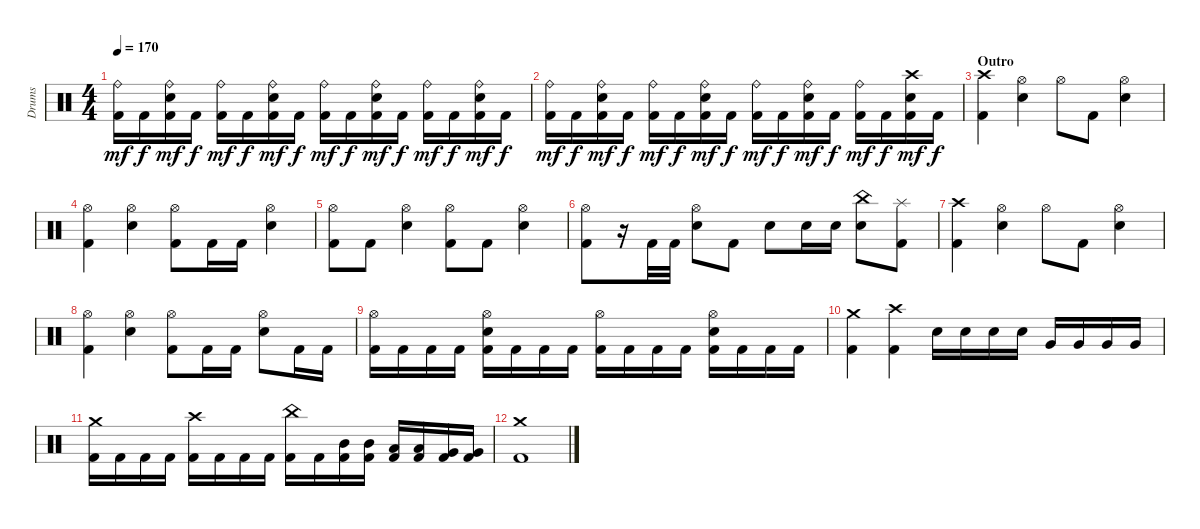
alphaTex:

\track ("Drums" "Drums") {instrument percussion}
\staff {score}
\articulation defaults
\ts (4 4)
\tempo 170
\clef neutral
\ks c
("Ride (bell)" "Kick (hit) 2").16{dy mf} "Kick (hit) 2".16{dy f} ("Ride (bell)" "Electric Snare (hit)" "Kick (hit) 2").16{dy mf} "Kick (hit) 2".16{dy f} ("Ride (bell)" "Kick (hit) 2").16{dy mf} "Kick (hit) 2".16{dy f} ("Ride (bell)" "Electric Snare (hit)" "Kick (hit) 2").16{dy mf} "Kick (hit) 2".16{dy f} ("Ride (bell)" "Kick (hit) 2").16{dy mf} "Kick (hit) 2".16{dy f} ("Ride (bell)" "Electric Snare (hit)" "Kick (hit) 2").16{dy mf} "Kick (hit) 2".16{dy f} ("Ride (bell)" "Kick (hit) 2").16{dy mf} "Kick (hit) 2".16{dy f} ("Ride (bell)" "Electric Snare (hit)" "Kick (hit) 2").16{dy mf} "Kick (hit) 2".16{dy f} |
("Ride (bell)" "Kick (hit) 2").16{dy mf} "Kick (hit) 2".16{dy f} ("Ride (bell)" "Electric Snare (hit)" "Kick (hit) 2").16{dy mf} "Kick (hit) 2".16{dy f} ("Ride (bell)" "Kick (hit) 2").16{dy mf} "Kick (hit) 2".16{dy f} ("Ride (bell)" "Electric Snare (hit)" "Kick (hit) 2").16{dy mf} "Kick (hit) 2".16{dy f} ("Ride (bell)" "Kick (hit) 2").16{dy mf} "Kick (hit) 2".16{dy f} ("Ride (bell)" "Electric Snare (hit)" "Kick (hit) 2").16{dy mf} "Kick (hit) 2".16{dy f} ("Ride (bell)" "Kick (hit) 2").16{dy mf} "Kick (hit) 2".16{dy f} ("Crash high (hit)" "Electric Snare (hit)" "Kick (hit) 2").16{dy mf} "Kick (hit) 2".16{dy f} |
\section ("" "Outro")
("Crash high (hit)" "Kick (hit) 2").4 ("Hi-Hat (open)" "Electric Snare (hit)").4 "Hi-Hat (open)".8 "Kick (hit) 2".8 ("Hi-Hat (open)" "Electric Snare (hit)").4 |
("Hi-Hat (open)" "Kick (hit) 2").4 ("Hi-Hat (open)" "Electric Snare (hit)").4 ("Hi-Hat (open)" "Kick (hit) 2").8 "Kick (hit) 2".16 "Kick (hit) 2".16 ("Hi-Hat (open)" "Electric Snare (hit)").4 |
("Hi-Hat (open)" "Kick (hit) 2").8 "Kick (hit) 2".8 ("Hi-Hat (open)" "Electric Snare (hit)").4 ("Hi-Hat (open)" "Kick (hit) 2").8 "Kick (hit) 2".8 ("Hi-Hat (open)" "Electric Snare (hit)").4 |
("Hi-Hat (open)" "Kick (hit) 2").8 r.16 "Kick (hit) 2".32 "Kick (hit) 2".32 ("Hi-Hat (open)" "Electric Snare (hit)").8 "Kick (hit) 2".8 "Electric Snare (hit)".8 "Electric Snare (hit)".16 "Electric Snare (hit)".16 ("China (hit)" "Electric Snare (hit)").8 ("Splash (hit)" "Kick (hit) 2").8 |
("Crash high (hit)" "Kick (hit) 2").4 ("Hi-Hat (open)" "Electric Snare (hit)").4 "Hi-Hat (open)".8 "Kick (hit) 2".8 ("Hi-Hat (open)" "Electric Snare (hit)").4 |
("Hi-Hat (open)" "Kick (hit) 2").4 ("Hi-Hat (open)" "Electric Snare (hit)").4 ("Hi-Hat (open)" "Kick (hit) 2").8 "Kick (hit) 2".16 "Kick (hit) 2".16 ("Hi-Hat (open)" "Electric Snare (hit)").8 "Kick (hit) 2".16 "Kick (hit) 2".16 |
("Hi-Hat (open)" "Kick (hit) 2").16 "Kick (hit) 2".16 "Kick (hit) 2".16 "Kick (hit) 2".16 ("Hi-Hat (open)" "Electric Snare (hit)" "Kick (hit) 2").16 "Kick (hit) 2".16 "Kick (hit) 2".16 "Kick (hit) 2".16 ("Hi-Hat (open)" "Kick (hit) 2").16 "Kick (hit) 2".16 "Kick (hit) 2".16 "Kick (hit) 2".16 ("Hi-Hat (open)" "Electric Snare (hit)" "Kick (hit) 2").16 "Kick (hit) 2".16 "Kick (hit) 2".16 "Kick (hit) 2".16 |
("Crash medium (hit)" "Kick (hit) 2").4 ("Crash high (hit)" "Kick (hit) 2").4 "Electric Snare (hit)".16 "Electric Snare (hit)".16 "Electric Snare (hit)".16 "Electric Snare (hit)".16 "Very Low Tom (hit)".16 "Very Low Tom (hit)".16 "Very Low Tom (hit)".16 "Very Low Tom (hit)".16 |
("Crash medium (hit)" "Kick (hit) 2").16 "Kick (hit) 2".16 "Kick (hit) 2".16 "Kick (hit) 2".16 ("Crash high (hit)" "Kick (hit) 2").16 "Kick (hit) 2".16 "Kick (hit) 2".16 "Kick (hit) 2".16 ("China (hit)" "Kick (hit) 2").16 "Kick (hit) 2".16 ("Mid Tom (hit)" "Kick (hit) 2").16 ("Mid Tom (hit)" "Kick (hit) 2").16 ("Low Tom (hit)" "Kick (hit) 2").16 ("Low Tom (hit)" "Kick (hit) 2").16 ("Very Low Tom (hit)" "Kick (hit) 2").16 ("Very Low Tom (hit)" "Kick (hit) 2").16 |
("Crash medium (hit)" "Kick (hit) 2").1
